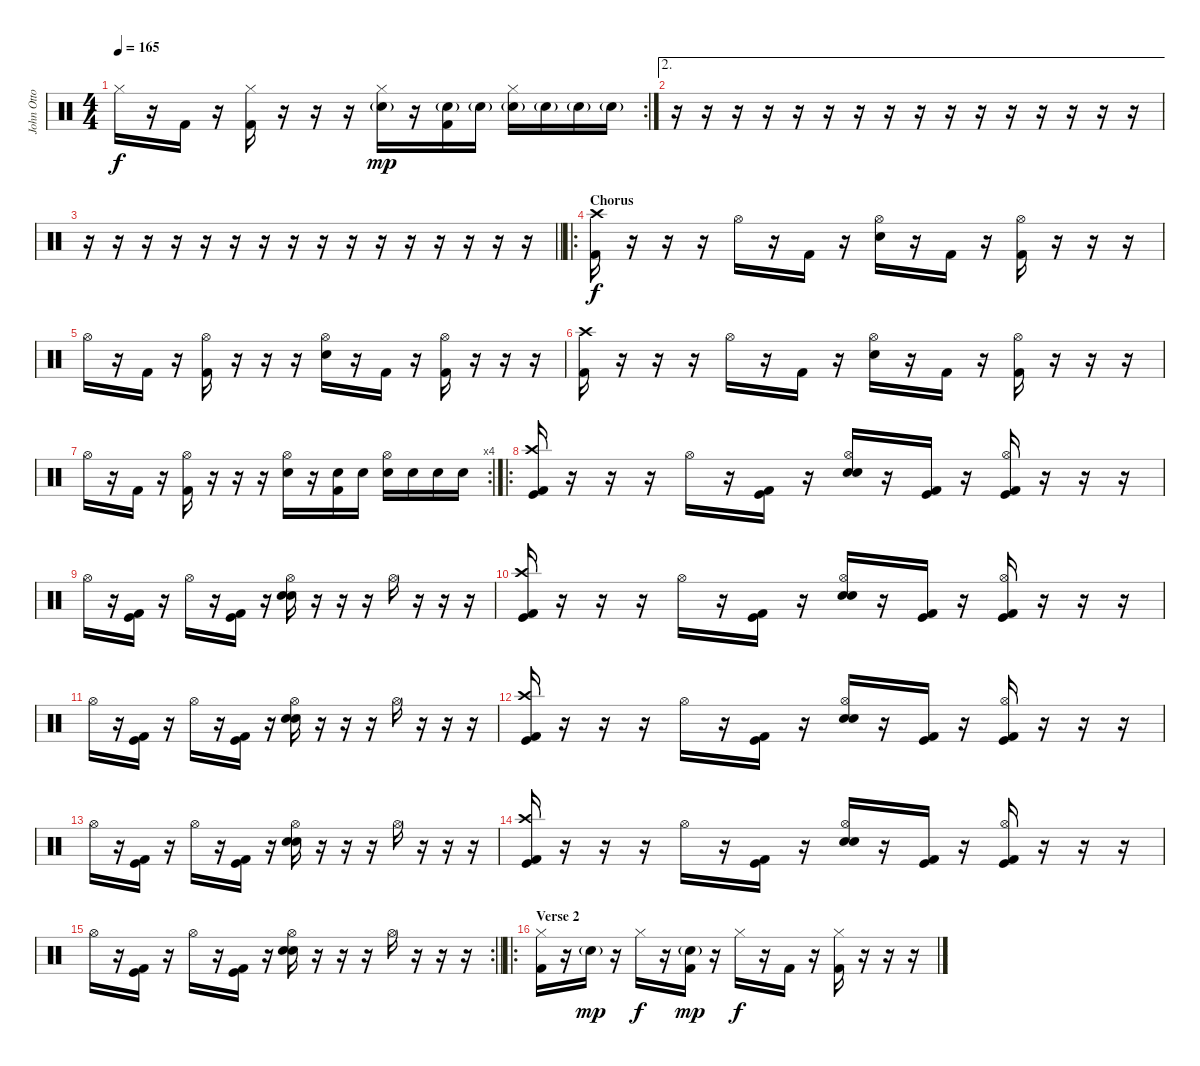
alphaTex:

\track ("John Otto" "John Otto") {instrument percussion}
\staff {score}
\articulation defaults
\rc 2
\ts (4 4)
\tempo 165
\clef neutral
\ks c "Hi-Hat (closed)".16{dy f}
r.16 "Kick (hit) 2".16 r.16 ("Hi-Hat (closed)" "Kick (hit) 2").16 r.16 r.16 r.16 ("Hi-Hat (closed)" "Snare (hit) 2"{g}).16{dy mp} r.16 ("Snare (hit) 2"{g} "Kick (hit) 2").16 "Snare (hit) 2"{g}.16 ("Hi-Hat (closed)" "Snare (hit) 2"{g}).16 "Snare (hit) 2"{g}.16 "Snare (hit) 2"{g}.16 "Snare (hit) 2"{g}.16 |
\ae 2
r.16 r.16 r.16 r.16 r.16 r.16 r.16 r.16 r.16 r.16 r.16 r.16 r.16 r.16 r.16 r.16 |
\barLineRight lightlight
r.16 r.16 r.16 r.16 r.16 r.16 r.16 r.16 r.16 r.16 r.16 r.16 r.16 r.16 r.16 r.16 |
\ro
\section ("" "Chorus")
("Crash high (hit)" "Kick (hit) 2").16{dy f} r.16 r.16 r.16 "Hi-Hat (open)".16 r.16 "Kick (hit) 2".16 r.16 ("Hi-Hat (open)" "Snare (hit) 2").16 r.16 "Kick (hit) 2".16 r.16 ("Hi-Hat (open)" "Kick (hit) 2").16 r.16 r.16 r.16 |
"Hi-Hat (open)".16 r.16 "Kick (hit) 2".16 r.16 ("Hi-Hat (open)" "Kick (hit) 2").16 r.16 r.16 r.16 ("Hi-Hat (open)" "Snare (hit) 2").16 r.16 "Kick (hit) 2".16 r.16 ("Hi-Hat (open)" "Kick (hit) 2").16 r.16 r.16 r.16 |
("Crash high (hit)" "Kick (hit) 2").16 r.16 r.16 r.16 "Hi-Hat (open)".16 r.16 "Kick (hit) 2".16 r.16 ("Hi-Hat (open)" "Snare (hit) 2").16 r.16 "Kick (hit) 2".16 r.16 ("Hi-Hat (open)" "Kick (hit) 2").16 r.16 r.16 r.16 |
\rc 4 "Hi-Hat (open)".16
r.16 "Kick (hit) 2".16 r.16 ("Hi-Hat (open)" "Kick (hit) 2").16 r.16 r.16 r.16 ("Hi-Hat (open)" "Snare (hit) 2").16 r.16 ("Snare (hit) 2" "Kick (hit) 2").16 "Snare (hit) 2".16 ("Hi-Hat (open)" "Snare (hit) 2").16 "Snare (hit) 2".16 "Snare (hit) 2".16 "Snare (hit) 2".16 |
\ro
("Crash high (hit)" "Kick (hit)" "Kick (hit) 2").16 r.16 r.16 r.16 "Hi-Hat (open)".16 r.16 ("Kick (hit)" "Kick (hit) 2").16 r.16 ("Hi-Hat (open)" "Electric Snare (hit)" "Snare (hit) 2").16 r.16 ("Kick (hit)" "Kick (hit) 2").16 r.16 ("Hi-Hat (open)" "Kick (hit)" "Kick (hit) 2").16 r.16 r.16 r.16 |
"Hi-Hat (open)".16 r.16 ("Kick (hit)" "Kick (hit) 2").16 r.16 "Hi-Hat (open)".16 r.16 ("Kick (hit)" "Kick (hit) 2").16 r.16 ("Hi-Hat (open)" "Electric Snare (hit)" "Snare (hit) 2").16 r.16 r.16 r.16 "Hi-Hat (open)".16 r.16 r.16 r.16 |
("Crash high (hit)" "Kick (hit)" "Kick (hit) 2").16 r.16 r.16 r.16 "Hi-Hat (open)".16 r.16 ("Kick (hit)" "Kick (hit) 2").16 r.16 ("Hi-Hat (open)" "Electric Snare (hit)" "Snare (hit) 2").16 r.16 ("Kick (hit)" "Kick (hit) 2").16 r.16 ("Hi-Hat (open)" "Kick (hit)" "Kick (hit) 2").16 r.16 r.16 r.16 |
"Hi-Hat (open)".16 r.16 ("Kick (hit)" "Kick (hit) 2").16 r.16 "Hi-Hat (open)".16 r.16 ("Kick (hit)" "Kick (hit) 2").16 r.16 ("Hi-Hat (open)" "Electric Snare (hit)" "Snare (hit) 2").16 r.16 r.16 r.16 "Hi-Hat (open)".16 r.16 r.16 r.16 |
("Crash high (hit)" "Kick (hit)" "Kick (hit) 2").16 r.16 r.16 r.16 "Hi-Hat (open)".16 r.16 ("Kick (hit)" "Kick (hit) 2").16 r.16 ("Hi-Hat (open)" "Electric Snare (hit)" "Snare (hit) 2").16 r.16 ("Kick (hit)" "Kick (hit) 2").16 r.16 ("Hi-Hat (open)" "Kick (hit)" "Kick (hit) 2").16 r.16 r.16 r.16 |
"Hi-Hat (open)".16 r.16 ("Kick (hit)" "Kick (hit) 2").16 r.16 "Hi-Hat (open)".16 r.16 ("Kick (hit)" "Kick (hit) 2").16 r.16 ("Hi-Hat (open)" "Electric Snare (hit)" "Snare (hit) 2").16 r.16 r.16 r.16 "Hi-Hat (open)".16 r.16 r.16 r.16 |
("Crash high (hit)" "Kick (hit)" "Kick (hit) 2").16 r.16 r.16 r.16 "Hi-Hat (open)".16 r.16 ("Kick (hit)" "Kick (hit) 2").16 r.16 ("Hi-Hat (open)" "Electric Snare (hit)" "Snare (hit) 2").16 r.16 ("Kick (hit)" "Kick (hit) 2").16 r.16 ("Hi-Hat (open)" "Kick (hit)" "Kick (hit) 2").16 r.16 r.16 r.16 |
\rc 2
\barLineRight lightlight "Hi-Hat (open)".16
r.16 ("Kick (hit)" "Kick (hit) 2").16 r.16 "Hi-Hat (open)".16 r.16 ("Kick (hit)" "Kick (hit) 2").16 r.16 ("Hi-Hat (open)" "Electric Snare (hit)" "Snare (hit) 2").16 r.16 r.16 r.16 "Hi-Hat (open)".16 r.16 r.16 r.16 |
\ro
\section ("" "Verse 2")
("Hi-Hat (closed)" "Kick (hit) 2").16 r.16 "Snare (hit) 2"{g}.16{dy mp} r.16 "Hi-Hat (closed)".16{dy f} r.16 ("Snare (hit) 2"{g} "Kick (hit) 2").16{dy mp} r.16 "Hi-Hat (closed)".16{dy f} r.16 "Kick (hit) 2".16 r.16 ("Hi-Hat (closed)" "Kick (hit) 2").16 r.16 r.16 r.16
